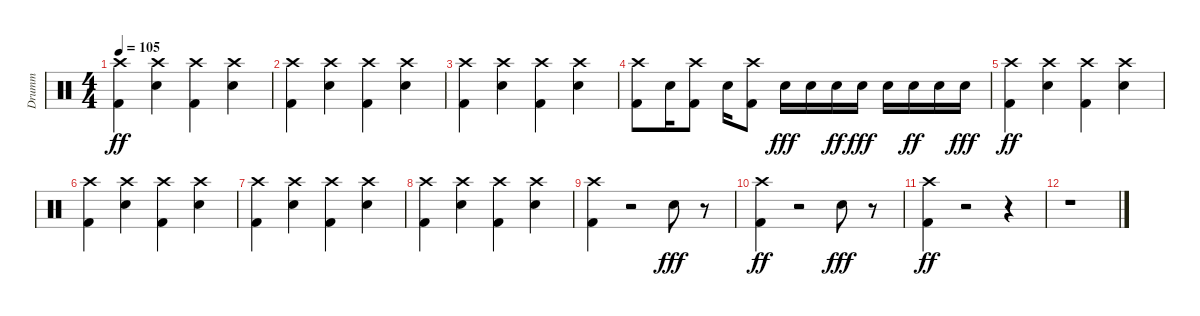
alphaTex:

\track ("Drumm" "Drumm") {instrument percussion}
\staff {score}
\articulation defaults
\ts (4 4)
\tempo 105
\clef neutral
\ks c
("Kick (hit) 2" "Crash high (hit)").4{dy ff} ("Snare (hit) 2" "Crash high (hit)").4 ("Kick (hit) 2" "Crash high (hit)").4 ("Snare (hit) 2" "Crash high (hit)").4 |
("Kick (hit) 2" "Crash high (hit)").4 ("Snare (hit) 2" "Crash high (hit)").4 ("Kick (hit) 2" "Crash high (hit)").4 ("Snare (hit) 2" "Crash high (hit)").4 |
("Kick (hit) 2" "Crash high (hit)").4 ("Snare (hit) 2" "Crash high (hit)").4 ("Kick (hit) 2" "Crash high (hit)").4 ("Snare (hit) 2" "Crash high (hit)").4 |
("Kick (hit) 2" "Crash high (hit)").8 "Snare (hit) 2".16 ("Kick (hit) 2" "Crash high (hit)").8 "Snare (hit) 2".16 ("Kick (hit) 2" "Crash high (hit)").8 "Snare (hit) 2".16{dy fff} "Snare (hit) 2".16 "Snare (hit) 2".16{dy ff} "Snare (hit) 2".16{dy fff} "Snare (hit) 2".16 "Snare (hit) 2".16{dy ff} "Snare (hit) 2".16 "Snare (hit) 2".16{dy fff} |
("Kick (hit) 2" "Crash high (hit)").4{dy ff} ("Snare (hit) 2" "Crash high (hit)").4 ("Kick (hit) 2" "Crash high (hit)").4 ("Snare (hit) 2" "Crash high (hit)").4 |
("Kick (hit) 2" "Crash high (hit)").4 ("Snare (hit) 2" "Crash high (hit)").4 ("Kick (hit) 2" "Crash high (hit)").4 ("Snare (hit) 2" "Crash high (hit)").4 |
("Kick (hit) 2" "Crash high (hit)").4 ("Snare (hit) 2" "Crash high (hit)").4 ("Kick (hit) 2" "Crash high (hit)").4 ("Snare (hit) 2" "Crash high (hit)").4 |
("Kick (hit) 2" "Crash high (hit)").4 ("Snare (hit) 2" "Crash high (hit)").4 ("Kick (hit) 2" "Crash high (hit)").4 ("Snare (hit) 2" "Crash high (hit)").4 |
("Kick (hit) 2" "Crash high (hit)").4 r.2 "Snare (hit) 2".8{dy fff} r.8 |
("Kick (hit) 2" "Crash high (hit)").4{dy ff} r.2 "Snare (hit) 2".8{dy fff} r.8 |
("Kick (hit) 2" "Crash high (hit)").4{dy ff} r.2 r.4 |
r.1
